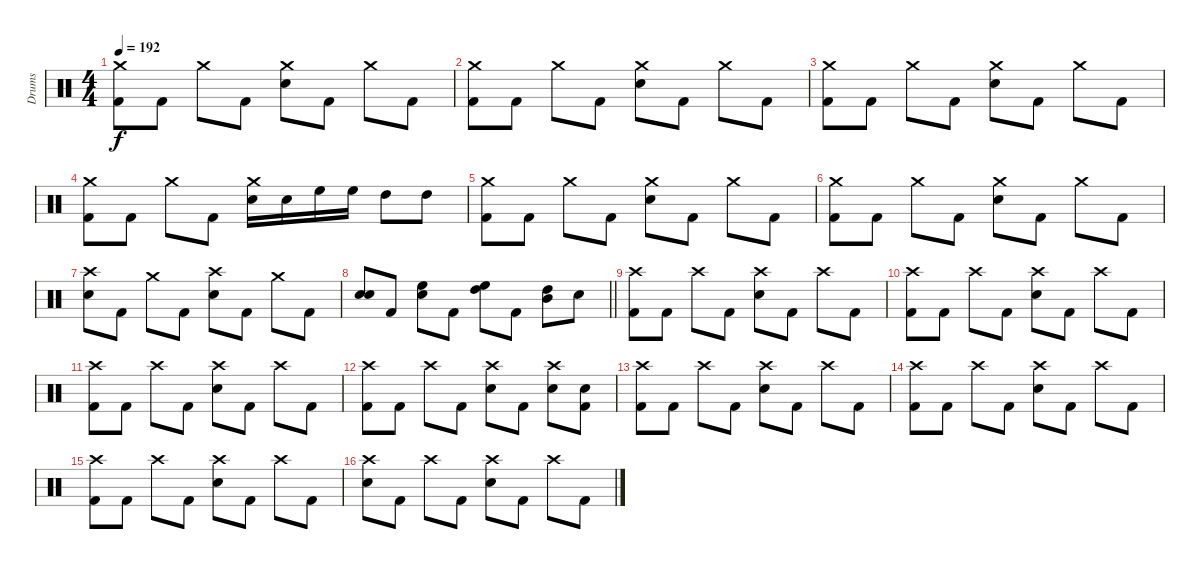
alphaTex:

\track ("Drums" "Drums") {instrument percussion}
\staff {score}
\articulation defaults
\ts (4 4)
\tempo 192
\clef neutral
\ks c
("Crash medium (hit)" "Kick (hit) 2").8{dy f} "Kick (hit) 2".8 "Crash medium (hit)".8 "Kick (hit) 2".8 ("Crash medium (hit)" "Electric Snare (hit)").8 "Kick (hit) 2".8 "Crash medium (hit)".8 "Kick (hit) 2".8 |
("Crash medium (hit)" "Kick (hit) 2").8 "Kick (hit) 2".8 "Crash medium (hit)".8 "Kick (hit) 2".8 ("Crash medium (hit)" "Electric Snare (hit)").8 "Kick (hit) 2".8 "Crash medium (hit)".8 "Kick (hit) 2".8 |
("Crash medium (hit)" "Kick (hit) 2").8 "Kick (hit) 2".8 "Crash medium (hit)".8 "Kick (hit) 2".8 ("Crash medium (hit)" "Electric Snare (hit)").8 "Kick (hit) 2".8 "Crash medium (hit)".8 "Kick (hit) 2".8 |
("Crash medium (hit)" "Kick (hit) 2").8 "Kick (hit) 2".8 "Crash medium (hit)".8 "Kick (hit) 2".8 ("Crash medium (hit)" "Electric Snare (hit)").16 "Electric Snare (hit)".16 "High Floor Tom (hit)".16 "High Floor Tom (hit)".16 "High Tom (hit)".8 "High Tom (hit)".8 |
("Crash medium (hit)" "Kick (hit) 2").8 "Kick (hit) 2".8 "Crash medium (hit)".8 "Kick (hit) 2".8 ("Crash medium (hit)" "Electric Snare (hit)").8 "Kick (hit) 2".8 "Crash medium (hit)".8 "Kick (hit) 2".8 |
("Crash medium (hit)" "Kick (hit) 2").8 "Kick (hit) 2".8 "Crash medium (hit)".8 "Kick (hit) 2".8 ("Crash medium (hit)" "Electric Snare (hit)").8 "Kick (hit) 2".8 "Crash medium (hit)".8 "Kick (hit) 2".8 |
("Crash high (hit)" "Electric Snare (hit)").8 "Kick (hit) 2".8 "Crash medium (hit)".8 "Kick (hit) 2".8 ("Crash high (hit)" "Electric Snare (hit)").8 "Kick (hit) 2".8 "Crash medium (hit)".8 "Kick (hit) 2".8 |
\barLineRight lightlight
("Electric Snare (hit)" "Electric Snare (hit)").8 "Kick (hit) 2".8 ("Electric Snare (hit)" "High Floor Tom (hit)").8 "Kick (hit) 2".8 ("High Floor Tom (hit)" "High Tom (hit)").8 "Kick (hit) 2".8 ("High Tom (hit)" "Mid Tom (hit)").8 "Electric Snare (hit)".8 |
("Crash high (hit)" "Kick (hit) 2").8 "Kick (hit) 2".8 "Crash high (hit)".8 "Kick (hit) 2".8 ("Crash high (hit)" "Electric Snare (hit)").8 "Kick (hit) 2".8 "Crash high (hit)".8 "Kick (hit) 2".8 |
("Crash high (hit)" "Kick (hit) 2").8 "Kick (hit) 2".8 "Crash high (hit)".8 "Kick (hit) 2".8 ("Crash high (hit)" "Electric Snare (hit)").8 "Kick (hit) 2".8 "Crash high (hit)".8 "Kick (hit) 2".8 |
("Crash high (hit)" "Kick (hit) 2").8 "Kick (hit) 2".8 "Crash high (hit)".8 "Kick (hit) 2".8 ("Crash high (hit)" "Electric Snare (hit)").8 "Kick (hit) 2".8 "Crash high (hit)".8 "Kick (hit) 2".8 |
("Crash high (hit)" "Kick (hit) 2").8 "Kick (hit) 2".8 "Crash high (hit)".8 "Kick (hit) 2".8 ("Crash high (hit)" "Electric Snare (hit)").8 "Kick (hit) 2".8 ("Crash high (hit)" "Electric Snare (hit)").8 ("Electric Snare (hit)" "Kick (hit) 2").8 |
("Crash high (hit)" "Kick (hit) 2").8 "Kick (hit) 2".8 "Crash high (hit)".8 "Kick (hit) 2".8 ("Crash high (hit)" "Electric Snare (hit)").8 "Kick (hit) 2".8 "Crash high (hit)".8 "Kick (hit) 2".8 |
("Crash high (hit)" "Kick (hit) 2").8 "Kick (hit) 2".8 "Crash high (hit)".8 "Kick (hit) 2".8 ("Crash high (hit)" "Electric Snare (hit)").8 "Kick (hit) 2".8 "Crash high (hit)".8 "Kick (hit) 2".8 |
("Crash high (hit)" "Kick (hit) 2").8 "Kick (hit) 2".8 "Crash high (hit)".8 "Kick (hit) 2".8 ("Crash high (hit)" "Electric Snare (hit)").8 "Kick (hit) 2".8 "Crash high (hit)".8 "Kick (hit) 2".8 |
("Crash high (hit)" "Electric Snare (hit)").8 "Kick (hit) 2".8 "Crash high (hit)".8 "Kick (hit) 2".8 ("Crash high (hit)" "Electric Snare (hit)").8 "Kick (hit) 2".8 "Crash high (hit)".8 "Kick (hit) 2".8
